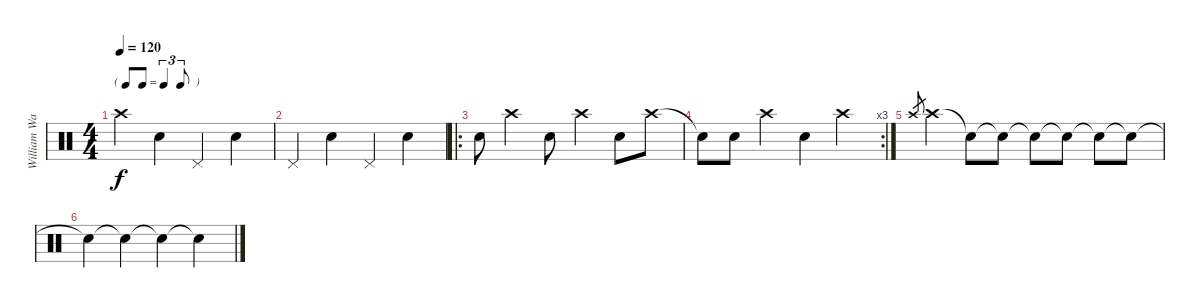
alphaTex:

\track ("William Ward" "William Wa") {instrument percussion}
\staff {score}
\articulation defaults
\ts (4 4)
\tf triplet8th
\tempo 120
\clef neutral
\ks c "Crash high (hit)".4{dy f} "Snare (hit) 2".4 "Pedal Hi-Hat (hit)".4 "Snare (hit) 2".4
|
"Pedal Hi-Hat (hit)".4 "Snare (hit) 2".4 "Pedal Hi-Hat (hit)".4 "Snare (hit) 2".4 |
\ro "Snare (hit) 2".8 "Crash high (hit)".4 "Snare (hit) 2".8 "Crash high (hit)".4 "Snare (hit) 2".8 "Crash high (hit)".8
|
\rc 3 "Snare (hit)"{t}.8 "Snare (hit) 2".8 "Crash high (hit)".4 "Snare (hit) 2".4 "Crash high (hit)".4
|
"Crash high (hit)".8{gr} "Crash high (hit)".4 "Snare (hit)"{t}.8 "Snare (hit)"{t}.8 "Snare (hit)"{t}.8 "Snare (hit)"{t}.8 "Snare (hit)"{t}.8 "Snare (hit)"{t}.8 |
"Snare (hit)"{t}.4 "Snare (hit)"{t}.4 "Snare (hit)"{t}.4 "Snare (hit)"{t}.4
